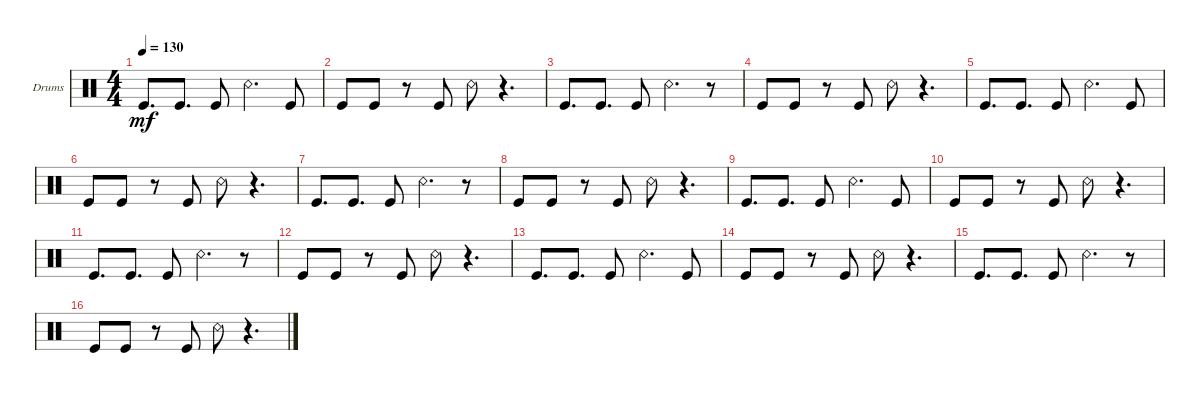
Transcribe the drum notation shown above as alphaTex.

\defaultSystemsLayout 4
\bracketExtendMode groupsimilarinstruments
\firstSystemTrackNameOrientation horizontal
\otherSystemsTrackNameOrientation horizontal
\track ("Drumkit" "Drums") {instrument percussion}
\staff {score}
\articulation defaults
\ts (4 4)
\tempo 130
\clef neutral
\ks c "Kick (hit)".8{d dy mf} "Kick (hit)".8{d} "Kick (hit)".8 "Snare (rim shot)".4{d} "Kick (hit)".8
|
"Kick (hit)".8 "Kick (hit)".8 r.8 "Kick (hit)".8 "Snare (rim shot)".8 r.4{d} |
"Kick (hit)".8{d} "Kick (hit)".8{d} "Kick (hit)".8 "Snare (rim shot)".4{d} r.8 |
"Kick (hit)".8 "Kick (hit)".8 r.8 "Kick (hit)".8 "Snare (rim shot)".8 r.4{d} |
"Kick (hit)".8{d} "Kick (hit)".8{d} "Kick (hit)".8 "Snare (rim shot)".4{d} "Kick (hit)".8 |
"Kick (hit)".8 "Kick (hit)".8 r.8 "Kick (hit)".8 "Snare (rim shot)".8 r.4{d} |
"Kick (hit)".8{d} "Kick (hit)".8{d} "Kick (hit)".8 "Snare (rim shot)".4{d} r.8 |
"Kick (hit)".8 "Kick (hit)".8 r.8 "Kick (hit)".8 "Snare (rim shot)".8 r.4{d} |
"Kick (hit)".8{d} "Kick (hit)".8{d} "Kick (hit)".8 "Snare (rim shot)".4{d} "Kick (hit)".8 |
"Kick (hit)".8 "Kick (hit)".8 r.8 "Kick (hit)".8 "Snare (rim shot)".8 r.4{d} |
"Kick (hit)".8{d} "Kick (hit)".8{d} "Kick (hit)".8 "Snare (rim shot)".4{d} r.8 |
"Kick (hit)".8 "Kick (hit)".8 r.8 "Kick (hit)".8 "Snare (rim shot)".8 r.4{d} |
"Kick (hit)".8{d} "Kick (hit)".8{d} "Kick (hit)".8 "Snare (rim shot)".4{d} "Kick (hit)".8 |
"Kick (hit)".8 "Kick (hit)".8 r.8 "Kick (hit)".8 "Snare (rim shot)".8 r.4{d} |
"Kick (hit)".8{d} "Kick (hit)".8{d} "Kick (hit)".8 "Snare (rim shot)".4{d} r.8 |
"Kick (hit)".8 "Kick (hit)".8 r.8 "Kick (hit)".8 "Snare (rim shot)".8 r.4{d}
